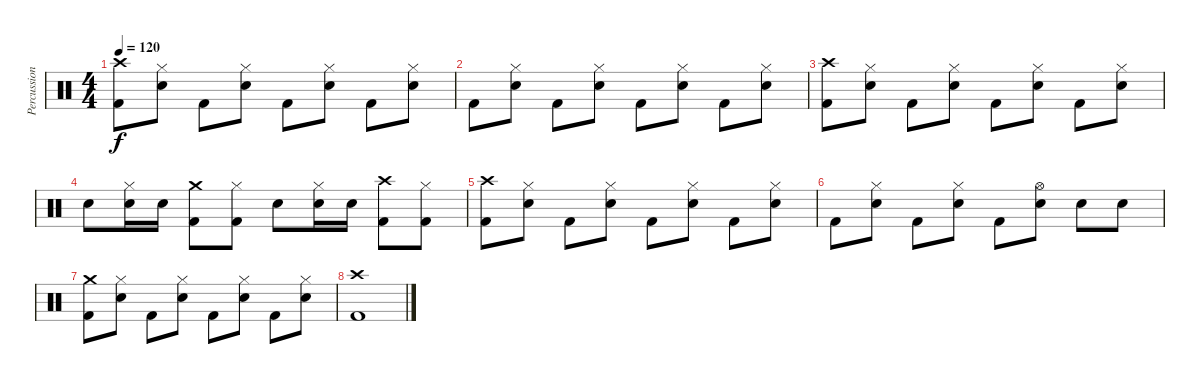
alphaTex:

\track ("Percussion" "Percussion") {instrument percussion}
\staff {score}
\articulation defaults
\ts (4 4)
\tempo 120
\clef neutral
\ks c
("Crash high (hit)" "Kick (hit) 2").8{dy f} ("Hi-Hat (closed)" "Snare (hit) 2").8 "Kick (hit) 2".8 ("Hi-Hat (closed)" "Snare (hit) 2").8 "Kick (hit) 2".8 ("Hi-Hat (closed)" "Snare (hit) 2").8 "Kick (hit) 2".8 ("Hi-Hat (closed)" "Snare (hit) 2").8 |
"Kick (hit) 2".8 ("Hi-Hat (closed)" "Snare (hit) 2").8 "Kick (hit) 2".8 ("Hi-Hat (closed)" "Snare (hit) 2").8 "Kick (hit) 2".8 ("Hi-Hat (closed)" "Snare (hit) 2").8 "Kick (hit) 2".8 ("Hi-Hat (closed)" "Snare (hit) 2").8 |
("Crash high (hit)" "Kick (hit) 2").8 ("Hi-Hat (closed)" "Snare (hit) 2").8 "Kick (hit) 2".8 ("Hi-Hat (closed)" "Snare (hit) 2").8 "Kick (hit) 2".8 ("Hi-Hat (closed)" "Snare (hit) 2").8 "Kick (hit) 2".8 ("Hi-Hat (closed)" "Snare (hit) 2").8 |
"Snare (hit) 2".8 ("Hi-Hat (closed)" "Snare (hit) 2").16 "Snare (hit) 2".16 ("Crash medium (hit)" "Kick (hit) 2").8 ("Hi-Hat (closed)" "Kick (hit) 2").8 "Snare (hit) 2".8 ("Hi-Hat (closed)" "Snare (hit) 2").16 "Snare (hit) 2".16 ("Crash high (hit)" "Kick (hit) 2").8 ("Hi-Hat (closed)" "Kick (hit) 2").8 |
("Crash high (hit)" "Kick (hit) 2").8 ("Hi-Hat (closed)" "Snare (hit) 2").8 "Kick (hit) 2".8 ("Hi-Hat (closed)" "Snare (hit) 2").8 "Kick (hit) 2".8 ("Hi-Hat (closed)" "Snare (hit) 2").8 "Kick (hit) 2".8 ("Hi-Hat (closed)" "Snare (hit) 2").8 |
"Kick (hit) 2".8 ("Hi-Hat (closed)" "Snare (hit) 2").8 "Kick (hit) 2".8 ("Hi-Hat (closed)" "Snare (hit) 2").8 "Kick (hit) 2".8 ("Hi-Hat (open)" "Snare (hit) 2").8 "Snare (hit) 2".8 "Snare (hit) 2".8 |
("Crash medium (hit)" "Kick (hit) 2").8 ("Hi-Hat (closed)" "Snare (hit) 2").8 "Kick (hit) 2".8 ("Hi-Hat (closed)" "Snare (hit) 2").8 "Kick (hit) 2".8 ("Hi-Hat (closed)" "Snare (hit) 2").8 "Kick (hit) 2".8 ("Hi-Hat (closed)" "Snare (hit) 2").8 |
("Crash high (hit)" "Kick (hit) 2").1
